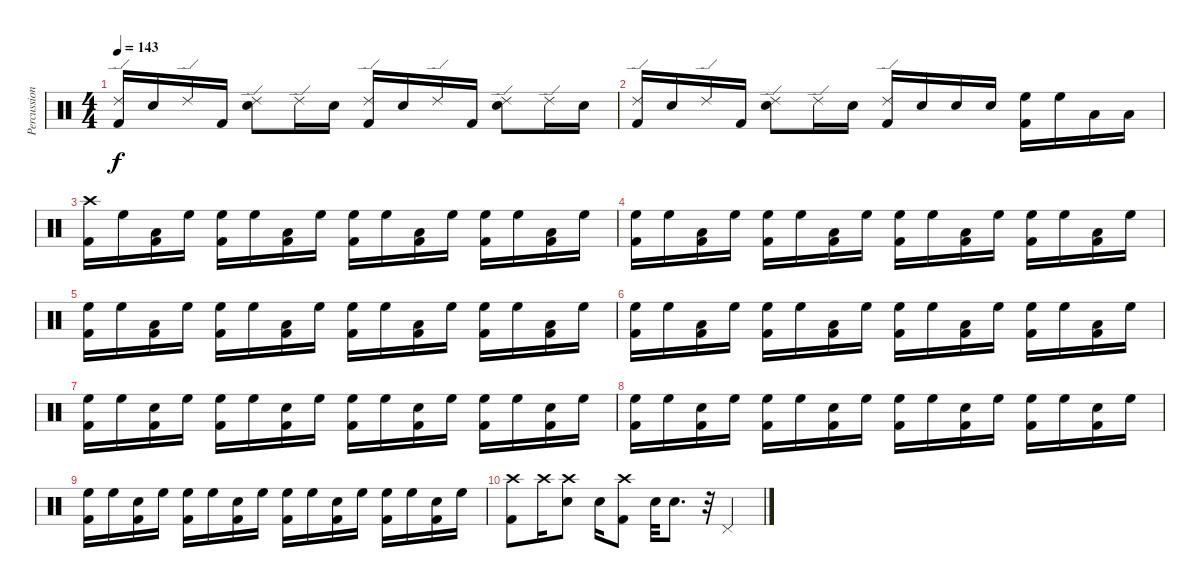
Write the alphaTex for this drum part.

\track ("Percussion" "Percussion") {instrument percussion}
\staff {score}
\articulation defaults
\ts (4 4)
\tempo 143
\clef neutral
\ks c
("Ride (edge) 2" "Kick (hit) 2").16{dy f} "Electric Snare (hit)".16 "Ride (edge) 2".16 "Kick (hit) 2".16 ("Ride (edge) 2" "Electric Snare (hit)").8 "Ride (edge) 2".16 "Electric Snare (hit)".16 ("Ride (edge) 2" "Kick (hit) 2").16 "Electric Snare (hit)".16 "Ride (edge) 2".16 "Kick (hit) 2".16 ("Ride (edge) 2" "Electric Snare (hit)").8 "Ride (edge) 2".16 "Electric Snare (hit)".16 |
("Ride (edge) 2" "Kick (hit) 2").16 "Electric Snare (hit)".16 "Ride (edge) 2".16 "Kick (hit) 2".16 ("Ride (edge) 2" "Electric Snare (hit)").8 "Ride (edge) 2".16 "Electric Snare (hit)".16 ("Ride (edge) 2" "Kick (hit) 2").16 "Electric Snare (hit)".16 "Electric Snare (hit)".16 "Electric Snare (hit)".16 ("High Floor Tom (hit)" "Kick (hit) 2").16 "High Floor Tom (hit)".16 "Low Tom (hit)".16 "Low Tom (hit)".16 |
("Crash high (hit)" "Kick (hit) 2").16 "High Floor Tom (hit)".16 ("Low Tom (hit)" "Kick (hit) 2").16 "High Floor Tom (hit)".16 ("High Floor Tom (hit)" "Kick (hit) 2").16 "High Floor Tom (hit)".16 ("Low Tom (hit)" "Kick (hit) 2").16 "High Floor Tom (hit)".16 ("High Floor Tom (hit)" "Kick (hit) 2").16 "High Floor Tom (hit)".16 ("Low Tom (hit)" "Kick (hit) 2").16 "High Floor Tom (hit)".16 ("High Floor Tom (hit)" "Kick (hit) 2").16 "High Floor Tom (hit)".16 ("Low Tom (hit)" "Kick (hit) 2").16 "High Floor Tom (hit)".16 |
("High Floor Tom (hit)" "Kick (hit) 2").16 "High Floor Tom (hit)".16 ("Low Tom (hit)" "Kick (hit) 2").16 "High Floor Tom (hit)".16 ("High Floor Tom (hit)" "Kick (hit) 2").16 "High Floor Tom (hit)".16 ("Low Tom (hit)" "Kick (hit) 2").16 "High Floor Tom (hit)".16 ("High Floor Tom (hit)" "Kick (hit) 2").16 "High Floor Tom (hit)".16 ("Low Tom (hit)" "Kick (hit) 2").16 "High Floor Tom (hit)".16 ("High Floor Tom (hit)" "Kick (hit) 2").16 "High Floor Tom (hit)".16 ("Low Tom (hit)" "Kick (hit) 2").16 "High Floor Tom (hit)".16 |
("High Floor Tom (hit)" "Kick (hit) 2").16 "High Floor Tom (hit)".16 ("Low Tom (hit)" "Kick (hit) 2").16 "High Floor Tom (hit)".16 ("High Floor Tom (hit)" "Kick (hit) 2").16 "High Floor Tom (hit)".16 ("Low Tom (hit)" "Kick (hit) 2").16 "High Floor Tom (hit)".16 ("High Floor Tom (hit)" "Kick (hit) 2").16 "High Floor Tom (hit)".16 ("Low Tom (hit)" "Kick (hit) 2").16 "High Floor Tom (hit)".16 ("High Floor Tom (hit)" "Kick (hit) 2").16 "High Floor Tom (hit)".16 ("Low Tom (hit)" "Kick (hit) 2").16 "High Floor Tom (hit)".16 |
("High Floor Tom (hit)" "Kick (hit) 2").16 "High Floor Tom (hit)".16 ("Low Tom (hit)" "Kick (hit) 2").16 "High Floor Tom (hit)".16 ("High Floor Tom (hit)" "Kick (hit) 2").16 "High Floor Tom (hit)".16 ("Low Tom (hit)" "Kick (hit) 2").16 "High Floor Tom (hit)".16 ("High Floor Tom (hit)" "Kick (hit) 2").16 "High Floor Tom (hit)".16 ("Low Tom (hit)" "Kick (hit) 2").16 "High Floor Tom (hit)".16 ("High Floor Tom (hit)" "Kick (hit) 2").16 "High Floor Tom (hit)".16 ("Low Tom (hit)" "Kick (hit) 2").16 "High Floor Tom (hit)".16 |
("High Floor Tom (hit)" "Kick (hit) 2").16 "High Floor Tom (hit)".16 ("Electric Snare (hit)" "Kick (hit) 2").16 "High Floor Tom (hit)".16 ("High Floor Tom (hit)" "Kick (hit) 2").16 "High Floor Tom (hit)".16 ("Electric Snare (hit)" "Kick (hit) 2").16 "High Floor Tom (hit)".16 ("High Floor Tom (hit)" "Kick (hit) 2").16 "High Floor Tom (hit)".16 ("Electric Snare (hit)" "Kick (hit) 2").16 "High Floor Tom (hit)".16 ("High Floor Tom (hit)" "Kick (hit) 2").16 "High Floor Tom (hit)".16 ("Electric Snare (hit)" "Kick (hit) 2").16 "High Floor Tom (hit)".16 |
("High Floor Tom (hit)" "Kick (hit) 2").16 "High Floor Tom (hit)".16 ("Electric Snare (hit)" "Kick (hit) 2").16 "High Floor Tom (hit)".16 ("High Floor Tom (hit)" "Kick (hit) 2").16 "High Floor Tom (hit)".16 ("Electric Snare (hit)" "Kick (hit) 2").16 "High Floor Tom (hit)".16 ("High Floor Tom (hit)" "Kick (hit) 2").16 "High Floor Tom (hit)".16 ("Electric Snare (hit)" "Kick (hit) 2").16 "High Floor Tom (hit)".16 ("High Floor Tom (hit)" "Kick (hit) 2").16 "High Floor Tom (hit)".16 ("Electric Snare (hit)" "Kick (hit) 2").16 "High Floor Tom (hit)".16 |
("High Floor Tom (hit)" "Kick (hit) 2").16 "High Floor Tom (hit)".16 ("Electric Snare (hit)" "Kick (hit) 2").16 "High Floor Tom (hit)".16 ("High Floor Tom (hit)" "Kick (hit) 2").16 "High Floor Tom (hit)".16 ("Electric Snare (hit)" "Kick (hit) 2").16 "High Floor Tom (hit)".16 ("High Floor Tom (hit)" "Kick (hit) 2").16 "High Floor Tom (hit)".16 ("Electric Snare (hit)" "Kick (hit) 2").16 "High Floor Tom (hit)".16 ("High Floor Tom (hit)" "Kick (hit) 2").16 "High Floor Tom (hit)".16 ("Electric Snare (hit)" "Kick (hit) 2").16 "High Floor Tom (hit)".16 |
("Crash high (hit)" "Kick (hit) 2").8 "Crash high (hit)".16 ("Crash high (hit)" "Electric Snare (hit)").8 "Electric Snare (hit)".16 ("Crash high (hit)" "Kick (hit) 2").8 "Electric Snare (hit)".32 "Electric Snare (hit)".8{d} r.32 "Pedal Hi-Hat (hit)".4
